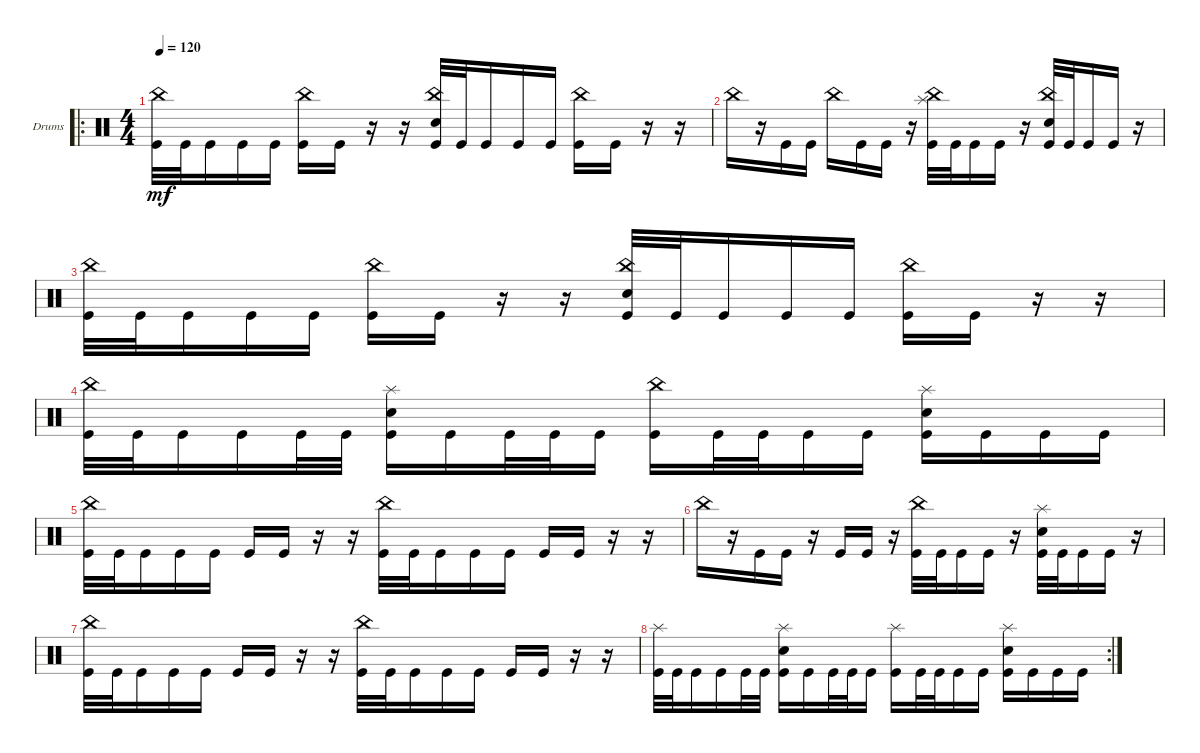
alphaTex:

\bracketExtendMode groupsimilarinstruments
\firstSystemTrackNameOrientation horizontal
\otherSystemsTrackNameOrientation horizontal
\track ("Drumkit" "Drums") {solo instrument percussion}
\staff {score}
\articulation defaults
\ro
\ts (4 4)
\tempo 120
\clef neutral
\ks c
("Kick (hit)" "China (hit)").32{dy mf} "Kick (hit)".32 "Kick (hit)".16 "Kick (hit)".16 "Kick (hit)".16 ("Kick (hit)" "China (hit)").16 "Kick (hit)".16 r.16 r.16 ("Kick (hit)" "China (hit)" "Snare (hit) 2").32 "Kick (hit)".32 "Kick (hit)".16 "Kick (hit)".16 "Kick (hit)".16 ("Kick (hit)" "China (hit)").16 "Kick (hit)".16 r.16 r.16 |
"China (hit)".16 r.16 "Kick (hit)".16 "Kick (hit)".16 "China (hit)".16 "Kick (hit)".16 "Kick (hit)".16 r.16 ("Kick (hit)" "China (hit)" "Splash (hit)").32 "Kick (hit)".32 "Kick (hit)".16 "Kick (hit)".16 r.16 ("Kick (hit)" "China (hit)" "Snare (hit) 2").32 "Kick (hit)".32 "Kick (hit)".16 "Kick (hit)".16 r.16 |
("Kick (hit)" "China (hit)").32 "Kick (hit)".32 "Kick (hit)".16 "Kick (hit)".16 "Kick (hit)".16 ("Kick (hit)" "China (hit)").16 "Kick (hit)".16 r.16 r.16 ("Kick (hit)" "China (hit)" "Snare (hit) 2").32 "Kick (hit)".32 "Kick (hit)".16 "Kick (hit)".16 "Kick (hit)".16 ("Kick (hit)" "China (hit)").16 "Kick (hit)".16 r.16 r.16 |
("Kick (hit)" "China (hit)").32 "Kick (hit)".32 "Kick (hit)".16 "Kick (hit)".16 "Kick (hit)".32 "Kick (hit)".32 ("Kick (hit)" "Splash (hit)" "Snare (hit) 2").16 "Kick (hit)".16 "Kick (hit)".32 "Kick (hit)".32 "Kick (hit)".16 ("Kick (hit)" "China (hit)").16 "Kick (hit)".32 "Kick (hit)".32 "Kick (hit)".16 "Kick (hit)".16 ("Kick (hit)" "Splash (hit)" "Snare (hit) 2").16 "Kick (hit)".16 "Kick (hit)".16 "Kick (hit)".16 |
("Kick (hit)" "China (hit)").32 "Kick (hit)".32 "Kick (hit)".16 "Kick (hit)".16 "Kick (hit)".16 "Kick (hit)".16 "Kick (hit)".16 r.16 r.16 ("Kick (hit)" "China (hit)").32 "Kick (hit)".32 "Kick (hit)".16 "Kick (hit)".16 "Kick (hit)".16 "Kick (hit)".16 "Kick (hit)".16 r.16 r.16 |
"China (hit)".16 r.16 "Kick (hit)".16 "Kick (hit)".16 r.16 "Kick (hit)".16 "Kick (hit)".16 r.16 ("Kick (hit)" "China (hit)").32 "Kick (hit)".32 "Kick (hit)".16 "Kick (hit)".16 r.16 ("Kick (hit)" "Splash (hit)" "Snare (hit) 2").32 "Kick (hit)".32 "Kick (hit)".16 "Kick (hit)".16 r.16 |
("Kick (hit)" "China (hit)").32 "Kick (hit)".32 "Kick (hit)".16 "Kick (hit)".16 "Kick (hit)".16 "Kick (hit)".16 "Kick (hit)".16 r.16 r.16 ("Kick (hit)" "China (hit)").32 "Kick (hit)".32 "Kick (hit)".16 "Kick (hit)".16 "Kick (hit)".16 "Kick (hit)".16 "Kick (hit)".16 r.16 r.16 |
\rc 2
("Kick (hit)" "Splash (hit)").32 "Kick (hit)".32 "Kick (hit)".16 "Kick (hit)".16 "Kick (hit)".32 "Kick (hit)".32 ("Kick (hit)" "Splash (hit)" "Snare (hit) 2").16 "Kick (hit)".16 "Kick (hit)".32 "Kick (hit)".32 "Kick (hit)".16 ("Kick (hit)" "Splash (hit)").16 "Kick (hit)".32 "Kick (hit)".32 "Kick (hit)".16 "Kick (hit)".16 ("Kick (hit)" "Splash (hit)" "Snare (hit) 2").16 "Kick (hit)".16 "Kick (hit)".16 "Kick (hit)".16
